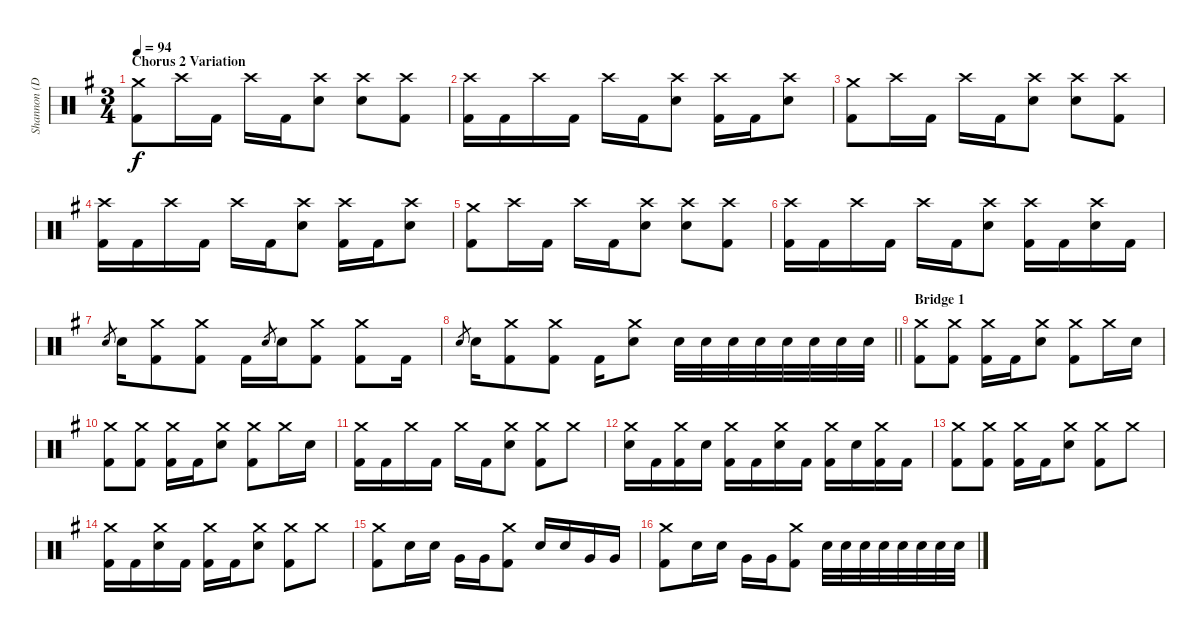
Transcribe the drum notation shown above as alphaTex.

\track ("Shannon (Drums)" "Shannon (D") {instrument percussion}
\staff {score}
\articulation defaults
\ts (3 4)
\section ("" "Chorus 2 Variation")
\tempo 94
\clef neutral
\ks g
("Crash medium (hit)" "Kick (hit) 2").8{dy f} "Crash high (hit)".16 "Kick (hit) 2".16 "Crash high (hit)".16 "Kick (hit) 2".16 ("Crash high (hit)" "Electric Snare (hit)").8 ("Crash high (hit)" "Electric Snare (hit)").8 ("Crash high (hit)" "Kick (hit) 2").8 |
("Crash high (hit)" "Kick (hit) 2").16 "Kick (hit) 2".16 "Crash high (hit)".16 "Kick (hit) 2".16 "Crash high (hit)".16 "Kick (hit) 2".16 ("Crash high (hit)" "Electric Snare (hit)").8 ("Crash high (hit)" "Kick (hit) 2").16 "Kick (hit) 2".16 ("Crash high (hit)" "Electric Snare (hit)").8 |
("Crash medium (hit)" "Kick (hit) 2").8 "Crash high (hit)".16 "Kick (hit) 2".16 "Crash high (hit)".16 "Kick (hit) 2".16 ("Crash high (hit)" "Electric Snare (hit)").8 ("Crash high (hit)" "Electric Snare (hit)").8 ("Crash high (hit)" "Kick (hit) 2").8 |
("Crash high (hit)" "Kick (hit) 2").16 "Kick (hit) 2".16 "Crash high (hit)".16 "Kick (hit) 2".16 "Crash high (hit)".16 "Kick (hit) 2".16 ("Crash high (hit)" "Electric Snare (hit)").8 ("Crash high (hit)" "Kick (hit) 2").16 "Kick (hit) 2".16 ("Crash high (hit)" "Electric Snare (hit)").8 |
("Crash medium (hit)" "Kick (hit) 2").8 "Crash high (hit)".16 "Kick (hit) 2".16 "Crash high (hit)".16 "Kick (hit) 2".16 ("Crash high (hit)" "Electric Snare (hit)").8 ("Crash high (hit)" "Electric Snare (hit)").8 ("Crash high (hit)" "Kick (hit) 2").8 |
("Crash high (hit)" "Kick (hit) 2").16 "Kick (hit) 2".16 "Crash high (hit)".16 "Kick (hit) 2".16 "Crash high (hit)".16 "Kick (hit) 2".16 ("Crash high (hit)" "Electric Snare (hit)").8 ("Crash high (hit)" "Kick (hit) 2").16 "Kick (hit) 2".16 ("Crash high (hit)" "Electric Snare (hit)").16 "Kick (hit) 2".16 |
"Electric Snare (hit)".8{gr} "Electric Snare (hit)".16 ("Crash medium (hit)" "Kick (hit) 2").8 ("Crash medium (hit)" "Kick (hit) 2").8 "Kick (hit) 2".16 "Electric Snare (hit)".8{gr} "Electric Snare (hit)".16 ("Crash medium (hit)" "Kick (hit) 2").8 ("Crash medium (hit)" "Kick (hit) 2").8 "Kick (hit) 2".16 |
\barLineRight lightlight "Electric Snare (hit)".8{gr} "Electric Snare (hit)".16
("Crash medium (hit)" "Kick (hit) 2").8 ("Crash medium (hit)" "Kick (hit) 2").8 "Kick (hit) 2".16 ("Crash medium (hit)" "Electric Snare (hit)").8 "Electric Snare (hit)".32 "Electric Snare (hit)".32 "Electric Snare (hit)".32 "Electric Snare (hit)".32 "Electric Snare (hit)".32 "Electric Snare (hit)".32 "Electric Snare (hit)".32 "Electric Snare (hit)".32 |
\section ("" "Bridge 1")
("Crash medium (hit)" "Kick (hit) 2").8 ("Crash medium (hit)" "Kick (hit) 2").8 ("Crash medium (hit)" "Kick (hit) 2").16 "Kick (hit) 2".16 ("Crash medium (hit)" "Electric Snare (hit)").8 ("Crash medium (hit)" "Kick (hit) 2").8 "Crash medium (hit)".16 "Electric Snare (hit)".16 |
("Crash medium (hit)" "Kick (hit) 2").8 ("Crash medium (hit)" "Kick (hit) 2").8 ("Crash medium (hit)" "Kick (hit) 2").16 "Kick (hit) 2".16 ("Crash medium (hit)" "Electric Snare (hit)").8 ("Crash medium (hit)" "Kick (hit) 2").8 "Crash medium (hit)".16 "Electric Snare (hit)".16 |
("Crash medium (hit)" "Kick (hit) 2").16 "Kick (hit) 2".16 "Crash medium (hit)".16 "Kick (hit) 2".16 "Crash medium (hit)".16 "Kick (hit) 2".16 ("Crash medium (hit)" "Electric Snare (hit)").8 ("Crash medium (hit)" "Kick (hit) 2").8 "Crash medium (hit)".8 |
("Crash medium (hit)" "Electric Snare (hit)").16 "Kick (hit) 2".16 ("Crash medium (hit)" "Kick (hit) 2").16 "Electric Snare (hit)".16 ("Crash medium (hit)" "Kick (hit) 2").16 "Kick (hit) 2".16 ("Crash medium (hit)" "Electric Snare (hit)").16 "Kick (hit) 2".16 ("Crash medium (hit)" "Kick (hit) 2").16 "Electric Snare (hit)".16 ("Crash medium (hit)" "Kick (hit) 2").16 "Kick (hit) 2".16 |
("Crash medium (hit)" "Kick (hit) 2").8 ("Crash medium (hit)" "Kick (hit) 2").8 ("Crash medium (hit)" "Kick (hit) 2").16 "Kick (hit) 2".16 ("Crash medium (hit)" "Electric Snare (hit)").8 ("Crash medium (hit)" "Kick (hit) 2").8 "Crash medium (hit)".8 |
("Crash medium (hit)" "Kick (hit) 2").16 "Kick (hit) 2".16 ("Crash medium (hit)" "Electric Snare (hit)").16 "Kick (hit) 2".16 ("Crash medium (hit)" "Kick (hit) 2").16 "Kick (hit) 2".16 ("Crash medium (hit)" "Electric Snare (hit)").8 ("Crash medium (hit)" "Kick (hit) 2").8 "Crash medium (hit)".8 |
("Crash medium (hit)" "Kick (hit) 2").8 "Electric Snare (hit)".16 "Electric Snare (hit)".16 "Very Low Tom (hit)".16 "Very Low Tom (hit)".16 ("Crash medium (hit)" "Kick (hit) 2").8 "Electric Snare (hit)".16 "Electric Snare (hit)".16 "Very Low Tom (hit)".16 "Very Low Tom (hit)".16 |
("Crash medium (hit)" "Kick (hit) 2").8 "Electric Snare (hit)".16 "Electric Snare (hit)".16 "Very Low Tom (hit)".16 "Very Low Tom (hit)".16 ("Crash medium (hit)" "Kick (hit) 2").8 "Electric Snare (hit)".32 "Electric Snare (hit)".32 "Electric Snare (hit)".32 "Electric Snare (hit)".32 "Electric Snare (hit)".32 "Electric Snare (hit)".32 "Electric Snare (hit)".32 "Electric Snare (hit)".32
